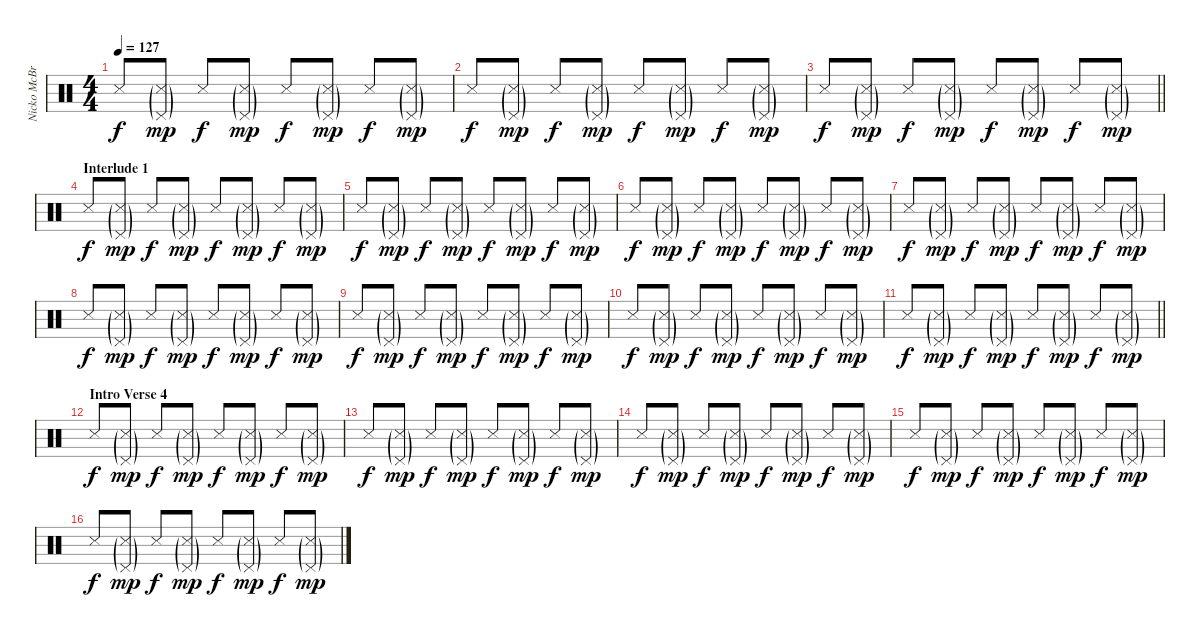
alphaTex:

\track ("Nicko McBrain" "Nicko McBr") {instrument percussion}
\staff {score}
\articulation defaults
\ts (4 4)
\tempo 127
\clef neutral
\ks c "Snare (side stick) 3".8{dy f}
("Pedal Hi-Hat (hit)"{g} "Snare (side stick) 3"{g}).8{dy mp} "Snare (side stick) 3".8{dy f} ("Pedal Hi-Hat (hit)"{g} "Snare (side stick) 3"{g}).8{dy mp} "Snare (side stick) 3".8{dy f} ("Pedal Hi-Hat (hit)"{g} "Snare (side stick) 3"{g}).8{dy mp} "Snare (side stick) 3".8{dy f} ("Pedal Hi-Hat (hit)"{g} "Snare (side stick) 3"{g}).8{dy mp} |
"Snare (side stick) 3".8{dy f} ("Pedal Hi-Hat (hit)"{g} "Snare (side stick) 3"{g}).8{dy mp} "Snare (side stick) 3".8{dy f} ("Pedal Hi-Hat (hit)"{g} "Snare (side stick) 3"{g}).8{dy mp} "Snare (side stick) 3".8{dy f} ("Pedal Hi-Hat (hit)"{g} "Snare (side stick) 3"{g}).8{dy mp} "Snare (side stick) 3".8{dy f} ("Pedal Hi-Hat (hit)"{g} "Snare (side stick) 3"{g}).8{dy mp} |
\barLineRight lightlight "Snare (side stick) 3".8{dy f}
("Pedal Hi-Hat (hit)"{g} "Snare (side stick) 3"{g}).8{dy mp} "Snare (side stick) 3".8{dy f} ("Pedal Hi-Hat (hit)"{g} "Snare (side stick) 3"{g}).8{dy mp} "Snare (side stick) 3".8{dy f} ("Pedal Hi-Hat (hit)"{g} "Snare (side stick) 3"{g}).8{dy mp} "Snare (side stick) 3".8{dy f} ("Pedal Hi-Hat (hit)"{g} "Snare (side stick) 3"{g}).8{dy mp} |
\section ("" "Interlude 1")
"Snare (side stick) 3".8{dy f} ("Pedal Hi-Hat (hit)"{g} "Snare (side stick) 3"{g}).8{dy mp} "Snare (side stick) 3".8{dy f} ("Pedal Hi-Hat (hit)"{g} "Snare (side stick) 3"{g}).8{dy mp} "Snare (side stick) 3".8{dy f} ("Pedal Hi-Hat (hit)"{g} "Snare (side stick) 3"{g}).8{dy mp} "Snare (side stick) 3".8{dy f} ("Pedal Hi-Hat (hit)"{g} "Snare (side stick) 3"{g}).8{dy mp} |
"Snare (side stick) 3".8{dy f} ("Pedal Hi-Hat (hit)"{g} "Snare (side stick) 3"{g}).8{dy mp} "Snare (side stick) 3".8{dy f} ("Pedal Hi-Hat (hit)"{g} "Snare (side stick) 3"{g}).8{dy mp} "Snare (side stick) 3".8{dy f} ("Pedal Hi-Hat (hit)"{g} "Snare (side stick) 3"{g}).8{dy mp} "Snare (side stick) 3".8{dy f} ("Pedal Hi-Hat (hit)"{g} "Snare (side stick) 3"{g}).8{dy mp} |
"Snare (side stick) 3".8{dy f} ("Pedal Hi-Hat (hit)"{g} "Snare (side stick) 3"{g}).8{dy mp} "Snare (side stick) 3".8{dy f} ("Pedal Hi-Hat (hit)"{g} "Snare (side stick) 3"{g}).8{dy mp} "Snare (side stick) 3".8{dy f} ("Pedal Hi-Hat (hit)"{g} "Snare (side stick) 3"{g}).8{dy mp} "Snare (side stick) 3".8{dy f} ("Pedal Hi-Hat (hit)"{g} "Snare (side stick) 3"{g}).8{dy mp} |
"Snare (side stick) 3".8{dy f} ("Pedal Hi-Hat (hit)"{g} "Snare (side stick) 3"{g}).8{dy mp} "Snare (side stick) 3".8{dy f} ("Pedal Hi-Hat (hit)"{g} "Snare (side stick) 3"{g}).8{dy mp} "Snare (side stick) 3".8{dy f} ("Pedal Hi-Hat (hit)"{g} "Snare (side stick) 3"{g}).8{dy mp} "Snare (side stick) 3".8{dy f} ("Pedal Hi-Hat (hit)"{g} "Snare (side stick) 3"{g}).8{dy mp} |
"Snare (side stick) 3".8{dy f} ("Pedal Hi-Hat (hit)"{g} "Snare (side stick) 3"{g}).8{dy mp} "Snare (side stick) 3".8{dy f} ("Pedal Hi-Hat (hit)"{g} "Snare (side stick) 3"{g}).8{dy mp} "Snare (side stick) 3".8{dy f} ("Pedal Hi-Hat (hit)"{g} "Snare (side stick) 3"{g}).8{dy mp} "Snare (side stick) 3".8{dy f} ("Pedal Hi-Hat (hit)"{g} "Snare (side stick) 3"{g}).8{dy mp} |
"Snare (side stick) 3".8{dy f} ("Pedal Hi-Hat (hit)"{g} "Snare (side stick) 3"{g}).8{dy mp} "Snare (side stick) 3".8{dy f} ("Pedal Hi-Hat (hit)"{g} "Snare (side stick) 3"{g}).8{dy mp} "Snare (side stick) 3".8{dy f} ("Pedal Hi-Hat (hit)"{g} "Snare (side stick) 3"{g}).8{dy mp} "Snare (side stick) 3".8{dy f} ("Pedal Hi-Hat (hit)"{g} "Snare (side stick) 3"{g}).8{dy mp} |
"Snare (side stick) 3".8{dy f} ("Pedal Hi-Hat (hit)"{g} "Snare (side stick) 3"{g}).8{dy mp} "Snare (side stick) 3".8{dy f} ("Pedal Hi-Hat (hit)"{g} "Snare (side stick) 3"{g}).8{dy mp} "Snare (side stick) 3".8{dy f} ("Pedal Hi-Hat (hit)"{g} "Snare (side stick) 3"{g}).8{dy mp} "Snare (side stick) 3".8{dy f} ("Pedal Hi-Hat (hit)"{g} "Snare (side stick) 3"{g}).8{dy mp} |
\barLineRight lightlight "Snare (side stick) 3".8{dy f}
("Pedal Hi-Hat (hit)"{g} "Snare (side stick) 3"{g}).8{dy mp} "Snare (side stick) 3".8{dy f} ("Pedal Hi-Hat (hit)"{g} "Snare (side stick) 3"{g}).8{dy mp} "Snare (side stick) 3".8{dy f} ("Pedal Hi-Hat (hit)"{g} "Snare (side stick) 3"{g}).8{dy mp} "Snare (side stick) 3".8{dy f} ("Pedal Hi-Hat (hit)"{g} "Snare (side stick) 3"{g}).8{dy mp} |
\section ("" "Intro Verse 4")
"Snare (side stick) 3".8{dy f} ("Pedal Hi-Hat (hit)"{g} "Snare (side stick) 3"{g}).8{dy mp} "Snare (side stick) 3".8{dy f} ("Pedal Hi-Hat (hit)"{g} "Snare (side stick) 3"{g}).8{dy mp} "Snare (side stick) 3".8{dy f} ("Pedal Hi-Hat (hit)"{g} "Snare (side stick) 3"{g}).8{dy mp} "Snare (side stick) 3".8{dy f} ("Pedal Hi-Hat (hit)"{g} "Snare (side stick) 3"{g}).8{dy mp} |
"Snare (side stick) 3".8{dy f} ("Pedal Hi-Hat (hit)"{g} "Snare (side stick) 3"{g}).8{dy mp} "Snare (side stick) 3".8{dy f} ("Pedal Hi-Hat (hit)"{g} "Snare (side stick) 3"{g}).8{dy mp} "Snare (side stick) 3".8{dy f} ("Pedal Hi-Hat (hit)"{g} "Snare (side stick) 3"{g}).8{dy mp} "Snare (side stick) 3".8{dy f} ("Pedal Hi-Hat (hit)"{g} "Snare (side stick) 3"{g}).8{dy mp} |
"Snare (side stick) 3".8{dy f} ("Pedal Hi-Hat (hit)"{g} "Snare (side stick) 3"{g}).8{dy mp} "Snare (side stick) 3".8{dy f} ("Pedal Hi-Hat (hit)"{g} "Snare (side stick) 3"{g}).8{dy mp} "Snare (side stick) 3".8{dy f} ("Pedal Hi-Hat (hit)"{g} "Snare (side stick) 3"{g}).8{dy mp} "Snare (side stick) 3".8{dy f} ("Pedal Hi-Hat (hit)"{g} "Snare (side stick) 3"{g}).8{dy mp} |
"Snare (side stick) 3".8{dy f} ("Pedal Hi-Hat (hit)"{g} "Snare (side stick) 3"{g}).8{dy mp} "Snare (side stick) 3".8{dy f} ("Pedal Hi-Hat (hit)"{g} "Snare (side stick) 3"{g}).8{dy mp} "Snare (side stick) 3".8{dy f} ("Pedal Hi-Hat (hit)"{g} "Snare (side stick) 3"{g}).8{dy mp} "Snare (side stick) 3".8{dy f} ("Pedal Hi-Hat (hit)"{g} "Snare (side stick) 3"{g}).8{dy mp} |
"Snare (side stick) 3".8{dy f} ("Pedal Hi-Hat (hit)"{g} "Snare (side stick) 3"{g}).8{dy mp} "Snare (side stick) 3".8{dy f} ("Pedal Hi-Hat (hit)"{g} "Snare (side stick) 3"{g}).8{dy mp} "Snare (side stick) 3".8{dy f} ("Pedal Hi-Hat (hit)"{g} "Snare (side stick) 3"{g}).8{dy mp} "Snare (side stick) 3".8{dy f} ("Pedal Hi-Hat (hit)"{g} "Snare (side stick) 3"{g}).8{dy mp}
